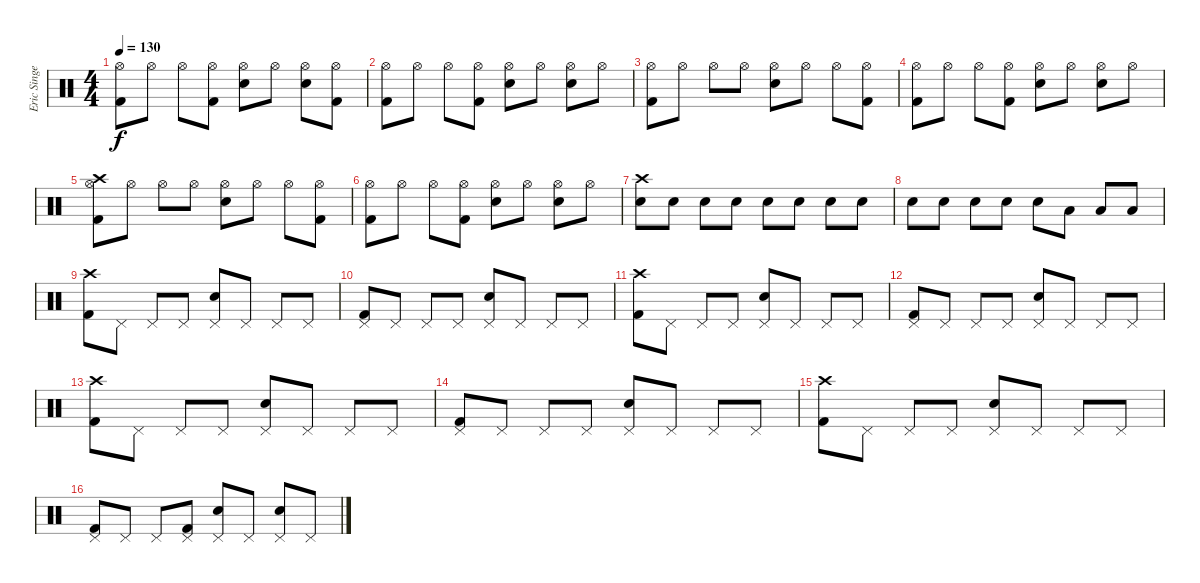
\track ("Eric Singer" "Eric Singe") {instrument percussion}
\staff {score}
\articulation defaults
\ts (4 4)
\tempo 130
\clef neutral
\ks c
("Kick (hit) 2" "Hi-Hat (open)").8{dy f} "Hi-Hat (open)".8 "Hi-Hat (open)".8 ("Kick (hit) 2" "Hi-Hat (open)").8 ("Electric Snare (hit)" "Hi-Hat (open)").8 "Hi-Hat (open)".8 ("Electric Snare (hit)" "Hi-Hat (open)").8 ("Kick (hit) 2" "Hi-Hat (open)").8 |
("Kick (hit) 2" "Hi-Hat (open)").8 "Hi-Hat (open)".8 "Hi-Hat (open)".8 ("Kick (hit) 2" "Hi-Hat (open)").8 ("Electric Snare (hit)" "Hi-Hat (open)").8 "Hi-Hat (open)".8 ("Electric Snare (hit)" "Hi-Hat (open)").8 "Hi-Hat (open)".8 |
("Kick (hit) 2" "Hi-Hat (open)").8 "Hi-Hat (open)".8 "Hi-Hat (open)".8 "Hi-Hat (open)".8 ("Electric Snare (hit)" "Hi-Hat (open)").8 "Hi-Hat (open)".8 "Hi-Hat (open)".8 ("Kick (hit) 2" "Hi-Hat (open)").8 |
("Kick (hit) 2" "Hi-Hat (open)").8 "Hi-Hat (open)".8 "Hi-Hat (open)".8 ("Kick (hit) 2" "Hi-Hat (open)").8 ("Electric Snare (hit)" "Hi-Hat (open)").8 "Hi-Hat (open)".8 ("Electric Snare (hit)" "Hi-Hat (open)").8 "Hi-Hat (open)".8 |
("Kick (hit) 2" "Hi-Hat (open)" "Crash high (hit)").8 "Hi-Hat (open)".8 "Hi-Hat (open)".8 "Hi-Hat (open)".8 ("Electric Snare (hit)" "Hi-Hat (open)").8 "Hi-Hat (open)".8 "Hi-Hat (open)".8 ("Kick (hit) 2" "Hi-Hat (open)").8 |
("Kick (hit) 2" "Hi-Hat (open)").8 "Hi-Hat (open)".8 "Hi-Hat (open)".8 ("Kick (hit) 2" "Hi-Hat (open)").8 ("Electric Snare (hit)" "Hi-Hat (open)").8 "Hi-Hat (open)".8 ("Electric Snare (hit)" "Hi-Hat (open)").8 "Hi-Hat (open)".8 |
("Electric Snare (hit)" "Crash high (hit)").8{volume 6} "Electric Snare (hit)".8{volume 8} "Electric Snare (hit)".8{volume 11} "Electric Snare (hit)".8{volume 14} "Electric Snare (hit)".8{volume 16} "Electric Snare (hit)".8 "Electric Snare (hit)".8 "Electric Snare (hit)".8 |
"Electric Snare (hit)".8 "Electric Snare (hit)".8 "Electric Snare (hit)".8 "Electric Snare (hit)".8 "Electric Snare (hit)".8 "Low Floor Tom (hit)".8 "Low Floor Tom (hit)".8 "Low Floor Tom (hit)".8 |
("Kick (hit) 2" "Crash high (hit)").8 "Pedal Hi-Hat (hit)".8 "Pedal Hi-Hat (hit)".8 "Pedal Hi-Hat (hit)".8 ("Electric Snare (hit)" "Pedal Hi-Hat (hit)").8 "Pedal Hi-Hat (hit)".8 "Pedal Hi-Hat (hit)".8 "Pedal Hi-Hat (hit)".8 |
("Kick (hit) 2" "Pedal Hi-Hat (hit)").8 "Pedal Hi-Hat (hit)".8 "Pedal Hi-Hat (hit)".8 "Pedal Hi-Hat (hit)".8 ("Electric Snare (hit)" "Pedal Hi-Hat (hit)").8 "Pedal Hi-Hat (hit)".8 "Pedal Hi-Hat (hit)".8 "Pedal Hi-Hat (hit)".8 |
("Kick (hit) 2" "Crash high (hit)").8 "Pedal Hi-Hat (hit)".8 "Pedal Hi-Hat (hit)".8 "Pedal Hi-Hat (hit)".8 ("Electric Snare (hit)" "Pedal Hi-Hat (hit)").8 "Pedal Hi-Hat (hit)".8 "Pedal Hi-Hat (hit)".8 "Pedal Hi-Hat (hit)".8 |
("Kick (hit) 2" "Pedal Hi-Hat (hit)").8 "Pedal Hi-Hat (hit)".8 "Pedal Hi-Hat (hit)".8 "Pedal Hi-Hat (hit)".8 ("Electric Snare (hit)" "Pedal Hi-Hat (hit)").8 "Pedal Hi-Hat (hit)".8 "Pedal Hi-Hat (hit)".8 "Pedal Hi-Hat (hit)".8 |
("Kick (hit) 2" "Crash high (hit)").8 "Pedal Hi-Hat (hit)".8 "Pedal Hi-Hat (hit)".8 "Pedal Hi-Hat (hit)".8 ("Electric Snare (hit)" "Pedal Hi-Hat (hit)").8 "Pedal Hi-Hat (hit)".8 "Pedal Hi-Hat (hit)".8 "Pedal Hi-Hat (hit)".8 |
("Kick (hit) 2" "Pedal Hi-Hat (hit)").8 "Pedal Hi-Hat (hit)".8 "Pedal Hi-Hat (hit)".8 "Pedal Hi-Hat (hit)".8 ("Electric Snare (hit)" "Pedal Hi-Hat (hit)").8 "Pedal Hi-Hat (hit)".8 "Pedal Hi-Hat (hit)".8 "Pedal Hi-Hat (hit)".8 |
("Kick (hit) 2" "Crash high (hit)").8 "Pedal Hi-Hat (hit)".8 "Pedal Hi-Hat (hit)".8 "Pedal Hi-Hat (hit)".8 ("Electric Snare (hit)" "Pedal Hi-Hat (hit)").8 "Pedal Hi-Hat (hit)".8 "Pedal Hi-Hat (hit)".8 "Pedal Hi-Hat (hit)".8 |
("Kick (hit) 2" "Pedal Hi-Hat (hit)").8 "Pedal Hi-Hat (hit)".8 "Pedal Hi-Hat (hit)".8 ("Kick (hit) 2" "Pedal Hi-Hat (hit)").8 ("Electric Snare (hit)" "Pedal Hi-Hat (hit)").8 "Pedal Hi-Hat (hit)".8 ("Electric Snare (hit)" "Pedal Hi-Hat (hit)").8 "Pedal Hi-Hat (hit)".8
